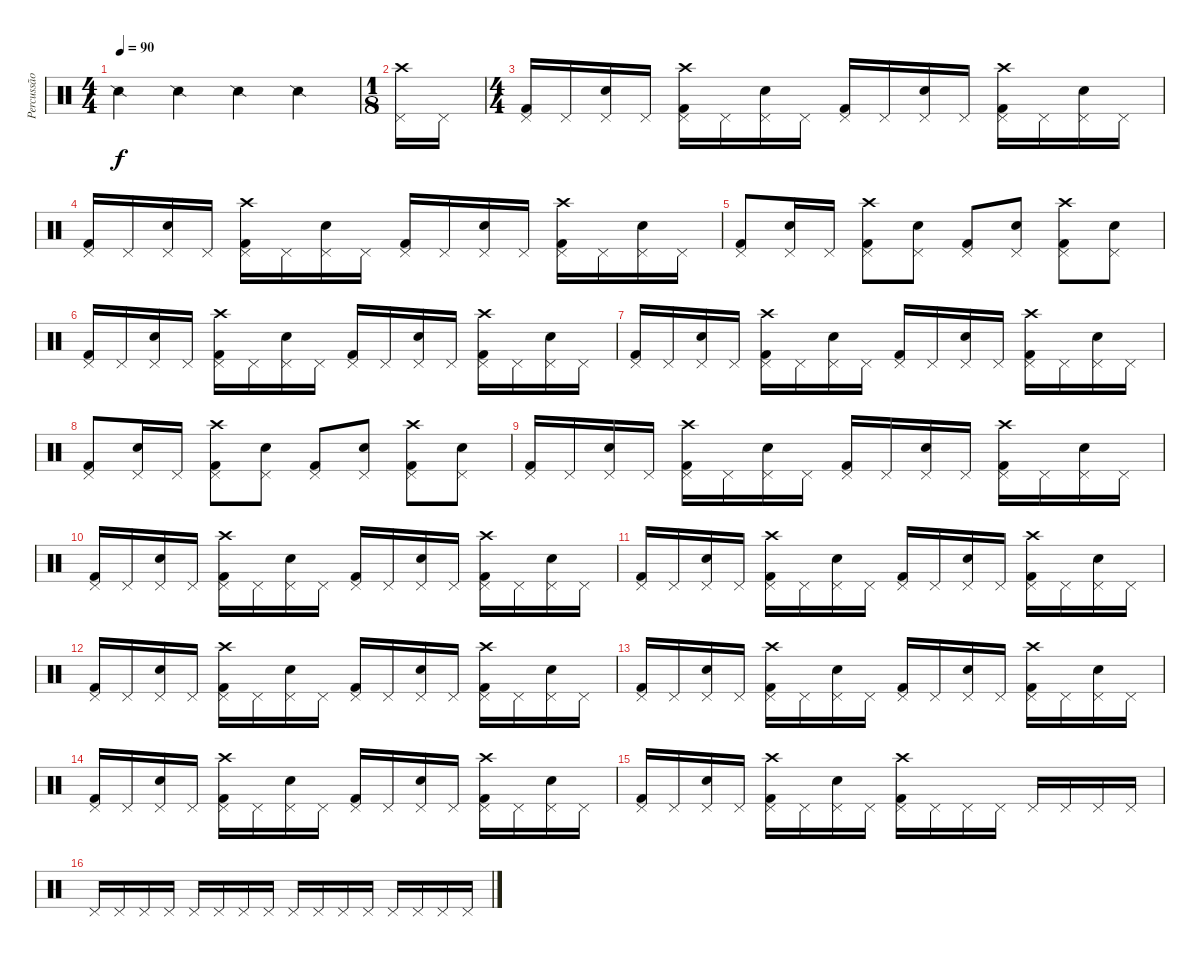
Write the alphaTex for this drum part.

\track ("Percussão" "Percussão") {instrument percussion}
\staff {score}
\articulation defaults
\ts (4 4)
\tempo 90
\clef neutral
\ks c "Snare (side stick) 2".4{dy f} "Snare (side stick) 2".4 "Snare (side stick) 2".4 "Snare (side stick) 2".4
|
\ts (1 8)
("Crash high (hit)" "Pedal Hi-Hat (hit)").16 "Pedal Hi-Hat (hit)".16 |
\ts (4 4)
("Pedal Hi-Hat (hit)" "Kick (hit) 2").16 "Pedal Hi-Hat (hit)".16 ("Pedal Hi-Hat (hit)" "Electric Snare (hit)").16 "Pedal Hi-Hat (hit)".16 ("Crash high (hit)" "Pedal Hi-Hat (hit)" "Kick (hit) 2").16 "Pedal Hi-Hat (hit)".16 ("Pedal Hi-Hat (hit)" "Electric Snare (hit)").16 "Pedal Hi-Hat (hit)".16 ("Pedal Hi-Hat (hit)" "Kick (hit) 2").16 "Pedal Hi-Hat (hit)".16 ("Pedal Hi-Hat (hit)" "Electric Snare (hit)").16 "Pedal Hi-Hat (hit)".16 ("Crash high (hit)" "Pedal Hi-Hat (hit)" "Kick (hit) 2").16 "Pedal Hi-Hat (hit)".16 ("Pedal Hi-Hat (hit)" "Electric Snare (hit)").16 "Pedal Hi-Hat (hit)".16 |
("Pedal Hi-Hat (hit)" "Kick (hit) 2").16 "Pedal Hi-Hat (hit)".16 ("Pedal Hi-Hat (hit)" "Electric Snare (hit)").16 "Pedal Hi-Hat (hit)".16 ("Crash high (hit)" "Pedal Hi-Hat (hit)" "Kick (hit) 2").16 "Pedal Hi-Hat (hit)".16 ("Pedal Hi-Hat (hit)" "Electric Snare (hit)").16 "Pedal Hi-Hat (hit)".16 ("Pedal Hi-Hat (hit)" "Kick (hit) 2").16 "Pedal Hi-Hat (hit)".16 ("Pedal Hi-Hat (hit)" "Electric Snare (hit)").16 "Pedal Hi-Hat (hit)".16 ("Crash high (hit)" "Pedal Hi-Hat (hit)" "Kick (hit) 2").16 "Pedal Hi-Hat (hit)".16 ("Pedal Hi-Hat (hit)" "Electric Snare (hit)").16 "Pedal Hi-Hat (hit)".16 |
("Pedal Hi-Hat (hit)" "Kick (hit) 2").8 ("Pedal Hi-Hat (hit)" "Electric Snare (hit)").16 "Pedal Hi-Hat (hit)".16 ("Crash high (hit)" "Pedal Hi-Hat (hit)" "Kick (hit) 2").8 ("Pedal Hi-Hat (hit)" "Electric Snare (hit)").8 ("Pedal Hi-Hat (hit)" "Kick (hit) 2").8 ("Pedal Hi-Hat (hit)" "Electric Snare (hit)").8 ("Crash high (hit)" "Pedal Hi-Hat (hit)" "Kick (hit) 2").8 ("Pedal Hi-Hat (hit)" "Electric Snare (hit)").8 |
("Pedal Hi-Hat (hit)" "Kick (hit) 2").16 "Pedal Hi-Hat (hit)".16 ("Pedal Hi-Hat (hit)" "Electric Snare (hit)").16 "Pedal Hi-Hat (hit)".16 ("Crash high (hit)" "Pedal Hi-Hat (hit)" "Kick (hit) 2").16 "Pedal Hi-Hat (hit)".16 ("Pedal Hi-Hat (hit)" "Electric Snare (hit)").16 "Pedal Hi-Hat (hit)".16 ("Pedal Hi-Hat (hit)" "Kick (hit) 2").16 "Pedal Hi-Hat (hit)".16 ("Pedal Hi-Hat (hit)" "Electric Snare (hit)").16 "Pedal Hi-Hat (hit)".16 ("Crash high (hit)" "Pedal Hi-Hat (hit)" "Kick (hit) 2").16 "Pedal Hi-Hat (hit)".16 ("Pedal Hi-Hat (hit)" "Electric Snare (hit)").16 "Pedal Hi-Hat (hit)".16 |
("Pedal Hi-Hat (hit)" "Kick (hit) 2").16 "Pedal Hi-Hat (hit)".16 ("Pedal Hi-Hat (hit)" "Electric Snare (hit)").16 "Pedal Hi-Hat (hit)".16 ("Crash high (hit)" "Pedal Hi-Hat (hit)" "Kick (hit) 2").16 "Pedal Hi-Hat (hit)".16 ("Pedal Hi-Hat (hit)" "Electric Snare (hit)").16 "Pedal Hi-Hat (hit)".16 ("Pedal Hi-Hat (hit)" "Kick (hit) 2").16 "Pedal Hi-Hat (hit)".16 ("Pedal Hi-Hat (hit)" "Electric Snare (hit)").16 "Pedal Hi-Hat (hit)".16 ("Crash high (hit)" "Pedal Hi-Hat (hit)" "Kick (hit) 2").16 "Pedal Hi-Hat (hit)".16 ("Pedal Hi-Hat (hit)" "Electric Snare (hit)").16 "Pedal Hi-Hat (hit)".16 |
("Pedal Hi-Hat (hit)" "Kick (hit) 2").8 ("Pedal Hi-Hat (hit)" "Electric Snare (hit)").16 "Pedal Hi-Hat (hit)".16 ("Crash high (hit)" "Pedal Hi-Hat (hit)" "Kick (hit) 2").8 ("Pedal Hi-Hat (hit)" "Electric Snare (hit)").8 ("Pedal Hi-Hat (hit)" "Kick (hit) 2").8 ("Pedal Hi-Hat (hit)" "Electric Snare (hit)").8 ("Crash high (hit)" "Pedal Hi-Hat (hit)" "Kick (hit) 2").8 ("Pedal Hi-Hat (hit)" "Electric Snare (hit)").8 |
("Pedal Hi-Hat (hit)" "Kick (hit) 2").16 "Pedal Hi-Hat (hit)".16 ("Pedal Hi-Hat (hit)" "Electric Snare (hit)").16 "Pedal Hi-Hat (hit)".16 ("Crash high (hit)" "Pedal Hi-Hat (hit)" "Kick (hit) 2").16 "Pedal Hi-Hat (hit)".16 ("Pedal Hi-Hat (hit)" "Electric Snare (hit)").16 "Pedal Hi-Hat (hit)".16 ("Pedal Hi-Hat (hit)" "Kick (hit) 2").16 "Pedal Hi-Hat (hit)".16 ("Pedal Hi-Hat (hit)" "Electric Snare (hit)").16 "Pedal Hi-Hat (hit)".16 ("Crash high (hit)" "Pedal Hi-Hat (hit)" "Kick (hit) 2").16 "Pedal Hi-Hat (hit)".16 ("Pedal Hi-Hat (hit)" "Electric Snare (hit)").16 "Pedal Hi-Hat (hit)".16 |
("Pedal Hi-Hat (hit)" "Kick (hit) 2").16 "Pedal Hi-Hat (hit)".16 ("Pedal Hi-Hat (hit)" "Electric Snare (hit)").16 "Pedal Hi-Hat (hit)".16 ("Crash high (hit)" "Pedal Hi-Hat (hit)" "Kick (hit) 2").16 "Pedal Hi-Hat (hit)".16 ("Pedal Hi-Hat (hit)" "Electric Snare (hit)").16 "Pedal Hi-Hat (hit)".16 ("Pedal Hi-Hat (hit)" "Kick (hit) 2").16 "Pedal Hi-Hat (hit)".16 ("Pedal Hi-Hat (hit)" "Electric Snare (hit)").16 "Pedal Hi-Hat (hit)".16 ("Crash high (hit)" "Pedal Hi-Hat (hit)" "Kick (hit) 2").16 "Pedal Hi-Hat (hit)".16 ("Pedal Hi-Hat (hit)" "Electric Snare (hit)").16 "Pedal Hi-Hat (hit)".16 |
("Pedal Hi-Hat (hit)" "Kick (hit) 2").16 "Pedal Hi-Hat (hit)".16 ("Pedal Hi-Hat (hit)" "Electric Snare (hit)").16 "Pedal Hi-Hat (hit)".16 ("Crash high (hit)" "Pedal Hi-Hat (hit)" "Kick (hit) 2").16 "Pedal Hi-Hat (hit)".16 ("Pedal Hi-Hat (hit)" "Electric Snare (hit)").16 "Pedal Hi-Hat (hit)".16 ("Pedal Hi-Hat (hit)" "Kick (hit) 2").16 "Pedal Hi-Hat (hit)".16 ("Pedal Hi-Hat (hit)" "Electric Snare (hit)").16 "Pedal Hi-Hat (hit)".16 ("Crash high (hit)" "Pedal Hi-Hat (hit)" "Kick (hit) 2").16 "Pedal Hi-Hat (hit)".16 ("Pedal Hi-Hat (hit)" "Electric Snare (hit)").16 "Pedal Hi-Hat (hit)".16 |
("Pedal Hi-Hat (hit)" "Kick (hit) 2").16 "Pedal Hi-Hat (hit)".16 ("Pedal Hi-Hat (hit)" "Electric Snare (hit)").16 "Pedal Hi-Hat (hit)".16 ("Crash high (hit)" "Pedal Hi-Hat (hit)" "Kick (hit) 2").16 "Pedal Hi-Hat (hit)".16 ("Pedal Hi-Hat (hit)" "Electric Snare (hit)").16 "Pedal Hi-Hat (hit)".16 ("Pedal Hi-Hat (hit)" "Kick (hit) 2").16 "Pedal Hi-Hat (hit)".16 ("Pedal Hi-Hat (hit)" "Electric Snare (hit)").16 "Pedal Hi-Hat (hit)".16 ("Crash high (hit)" "Pedal Hi-Hat (hit)" "Kick (hit) 2").16 "Pedal Hi-Hat (hit)".16 ("Pedal Hi-Hat (hit)" "Electric Snare (hit)").16 "Pedal Hi-Hat (hit)".16 |
("Pedal Hi-Hat (hit)" "Kick (hit) 2").16 "Pedal Hi-Hat (hit)".16 ("Pedal Hi-Hat (hit)" "Electric Snare (hit)").16 "Pedal Hi-Hat (hit)".16 ("Crash high (hit)" "Pedal Hi-Hat (hit)" "Kick (hit) 2").16 "Pedal Hi-Hat (hit)".16 ("Pedal Hi-Hat (hit)" "Electric Snare (hit)").16 "Pedal Hi-Hat (hit)".16 ("Pedal Hi-Hat (hit)" "Kick (hit) 2").16 "Pedal Hi-Hat (hit)".16 ("Pedal Hi-Hat (hit)" "Electric Snare (hit)").16 "Pedal Hi-Hat (hit)".16 ("Crash high (hit)" "Pedal Hi-Hat (hit)" "Kick (hit) 2").16 "Pedal Hi-Hat (hit)".16 ("Pedal Hi-Hat (hit)" "Electric Snare (hit)").16 "Pedal Hi-Hat (hit)".16 |
("Pedal Hi-Hat (hit)" "Kick (hit) 2").16 "Pedal Hi-Hat (hit)".16 ("Pedal Hi-Hat (hit)" "Electric Snare (hit)").16 "Pedal Hi-Hat (hit)".16 ("Crash high (hit)" "Pedal Hi-Hat (hit)" "Kick (hit) 2").16 "Pedal Hi-Hat (hit)".16 ("Pedal Hi-Hat (hit)" "Electric Snare (hit)").16 "Pedal Hi-Hat (hit)".16 ("Pedal Hi-Hat (hit)" "Kick (hit) 2").16 "Pedal Hi-Hat (hit)".16 ("Pedal Hi-Hat (hit)" "Electric Snare (hit)").16 "Pedal Hi-Hat (hit)".16 ("Crash high (hit)" "Pedal Hi-Hat (hit)" "Kick (hit) 2").16 "Pedal Hi-Hat (hit)".16 ("Pedal Hi-Hat (hit)" "Electric Snare (hit)").16 "Pedal Hi-Hat (hit)".16 |
("Pedal Hi-Hat (hit)" "Kick (hit) 2").16 "Pedal Hi-Hat (hit)".16 ("Pedal Hi-Hat (hit)" "Electric Snare (hit)").16 "Pedal Hi-Hat (hit)".16 ("Crash high (hit)" "Pedal Hi-Hat (hit)" "Kick (hit) 2").16 "Pedal Hi-Hat (hit)".16 ("Pedal Hi-Hat (hit)" "Electric Snare (hit)").16 "Pedal Hi-Hat (hit)".16 ("Crash high (hit)" "Pedal Hi-Hat (hit)" "Kick (hit) 2").16 "Pedal Hi-Hat (hit)".16 "Pedal Hi-Hat (hit)".16 "Pedal Hi-Hat (hit)".16 "Pedal Hi-Hat (hit)".16 "Pedal Hi-Hat (hit)".16 "Pedal Hi-Hat (hit)".16 "Pedal Hi-Hat (hit)".16 |
"Pedal Hi-Hat (hit)".16 "Pedal Hi-Hat (hit)".16 "Pedal Hi-Hat (hit)".16 "Pedal Hi-Hat (hit)".16 "Pedal Hi-Hat (hit)".16 "Pedal Hi-Hat (hit)".16 "Pedal Hi-Hat (hit)".16 "Pedal Hi-Hat (hit)".16 "Pedal Hi-Hat (hit)".16 "Pedal Hi-Hat (hit)".16 "Pedal Hi-Hat (hit)".16 "Pedal Hi-Hat (hit)".16 "Pedal Hi-Hat (hit)".16 "Pedal Hi-Hat (hit)".16 "Pedal Hi-Hat (hit)".16 "Pedal Hi-Hat (hit)".16
